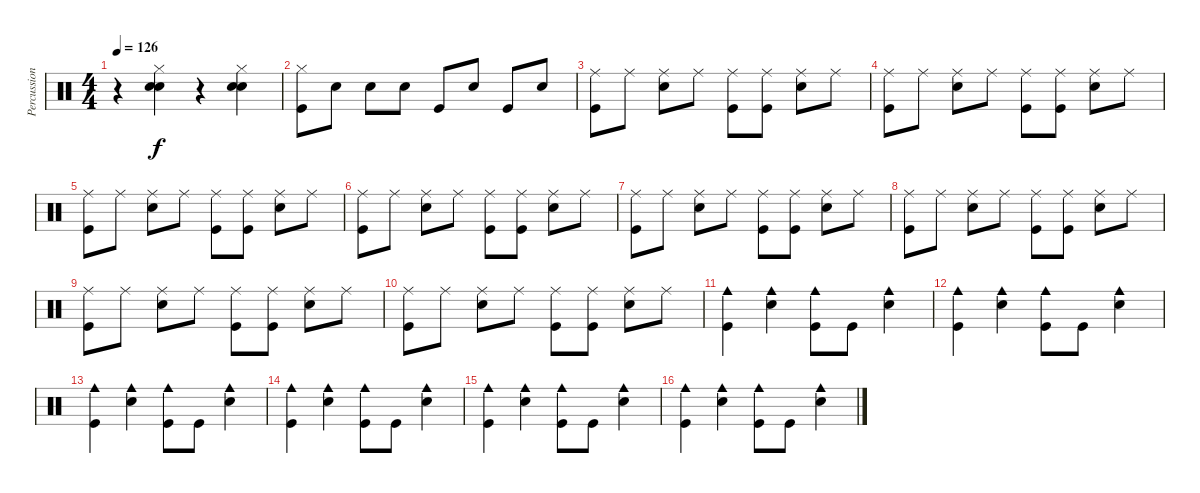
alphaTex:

\track ("Percussion" "Percussion") {instrument percussion}
\staff {score}
\articulation defaults
\ts (4 4)
\tempo 126
\clef neutral
\ks c
r.4{dy f} ("Snare (hit) 2" "Electric Snare (hit)" "Hi-Hat (closed)").4 r.4 ("Snare (hit) 2" "Electric Snare (hit)" "Hi-Hat (closed)").4 |
("Hi-Hat (closed)" "Kick (hit)").8 "Electric Snare (hit)".8 "Electric Snare (hit)".8 "Electric Snare (hit)".8 "Kick (hit)".8 "Electric Snare (hit)".8 "Kick (hit)".8 "Electric Snare (hit)".8 |
("Ride (middle)" "Kick (hit)").8 "Ride (middle)".8 ("Ride (middle)" "Electric Snare (hit)").8 "Ride (middle)".8 ("Ride (middle)" "Kick (hit)").8 ("Ride (middle)" "Kick (hit)").8 ("Ride (middle)" "Electric Snare (hit)").8 "Ride (middle)".8 |
("Ride (middle)" "Kick (hit)").8 "Ride (middle)".8 ("Ride (middle)" "Electric Snare (hit)").8 "Ride (middle)".8 ("Ride (middle)" "Kick (hit)").8 ("Ride (middle)" "Kick (hit)").8 ("Ride (middle)" "Electric Snare (hit)").8 "Ride (middle)".8 |
("Ride (middle)" "Kick (hit)").8 "Ride (middle)".8 ("Ride (middle)" "Electric Snare (hit)").8 "Ride (middle)".8 ("Ride (middle)" "Kick (hit)").8 ("Ride (middle)" "Kick (hit)").8 ("Ride (middle)" "Electric Snare (hit)").8 "Ride (middle)".8 |
("Ride (middle)" "Kick (hit)").8 "Ride (middle)".8 ("Ride (middle)" "Electric Snare (hit)").8 "Ride (middle)".8 ("Ride (middle)" "Kick (hit)").8 ("Ride (middle)" "Kick (hit)").8 ("Ride (middle)" "Electric Snare (hit)").8 "Ride (middle)".8 |
("Ride (middle)" "Kick (hit)").8 "Ride (middle)".8 ("Ride (middle)" "Electric Snare (hit)").8 "Ride (middle)".8 ("Ride (middle)" "Kick (hit)").8 ("Ride (middle)" "Kick (hit)").8 ("Ride (middle)" "Electric Snare (hit)").8 "Ride (middle)".8 |
("Ride (middle)" "Kick (hit)").8 "Ride (middle)".8 ("Ride (middle)" "Electric Snare (hit)").8 "Ride (middle)".8 ("Ride (middle)" "Kick (hit)").8 ("Ride (middle)" "Kick (hit)").8 ("Ride (middle)" "Electric Snare (hit)").8 "Ride (middle)".8 |
("Ride (middle)" "Kick (hit)").8 "Ride (middle)".8 ("Ride (middle)" "Electric Snare (hit)").8 "Ride (middle)".8 ("Ride (middle)" "Kick (hit)").8 ("Ride (middle)" "Kick (hit)").8 ("Ride (middle)" "Electric Snare (hit)").8 "Ride (middle)".8 |
("Ride (middle)" "Kick (hit)").8 "Ride (middle)".8 ("Ride (middle)" "Electric Snare (hit)").8 "Ride (middle)".8 ("Ride (middle)" "Kick (hit)").8 ("Ride (middle)" "Kick (hit)").8 ("Ride (middle)" "Electric Snare (hit)").8 "Ride (middle)".8 |
("Cowbell medium (hit)" "Kick (hit)").4 ("Cowbell medium (hit)" "Electric Snare (hit)").4 ("Cowbell medium (hit)" "Kick (hit)").8 "Kick (hit)".8 ("Cowbell medium (hit)" "Electric Snare (hit)").4 |
("Cowbell medium (hit)" "Kick (hit)").4 ("Cowbell medium (hit)" "Electric Snare (hit)").4 ("Cowbell medium (hit)" "Kick (hit)").8 "Kick (hit)".8 ("Cowbell medium (hit)" "Electric Snare (hit)").4 |
("Cowbell medium (hit)" "Kick (hit)").4 ("Cowbell medium (hit)" "Electric Snare (hit)").4 ("Cowbell medium (hit)" "Kick (hit)").8 "Kick (hit)".8 ("Cowbell medium (hit)" "Electric Snare (hit)").4 |
("Cowbell medium (hit)" "Kick (hit)").4 ("Cowbell medium (hit)" "Electric Snare (hit)").4 ("Cowbell medium (hit)" "Kick (hit)").8 "Kick (hit)".8 ("Cowbell medium (hit)" "Electric Snare (hit)").4 |
("Cowbell medium (hit)" "Kick (hit)").4 ("Cowbell medium (hit)" "Electric Snare (hit)").4 ("Cowbell medium (hit)" "Kick (hit)").8 "Kick (hit)".8 ("Cowbell medium (hit)" "Electric Snare (hit)").4 |
("Cowbell medium (hit)" "Kick (hit)").4 ("Cowbell medium (hit)" "Electric Snare (hit)").4 ("Cowbell medium (hit)" "Kick (hit)").8 "Kick (hit)".8 ("Cowbell medium (hit)" "Electric Snare (hit)").4
